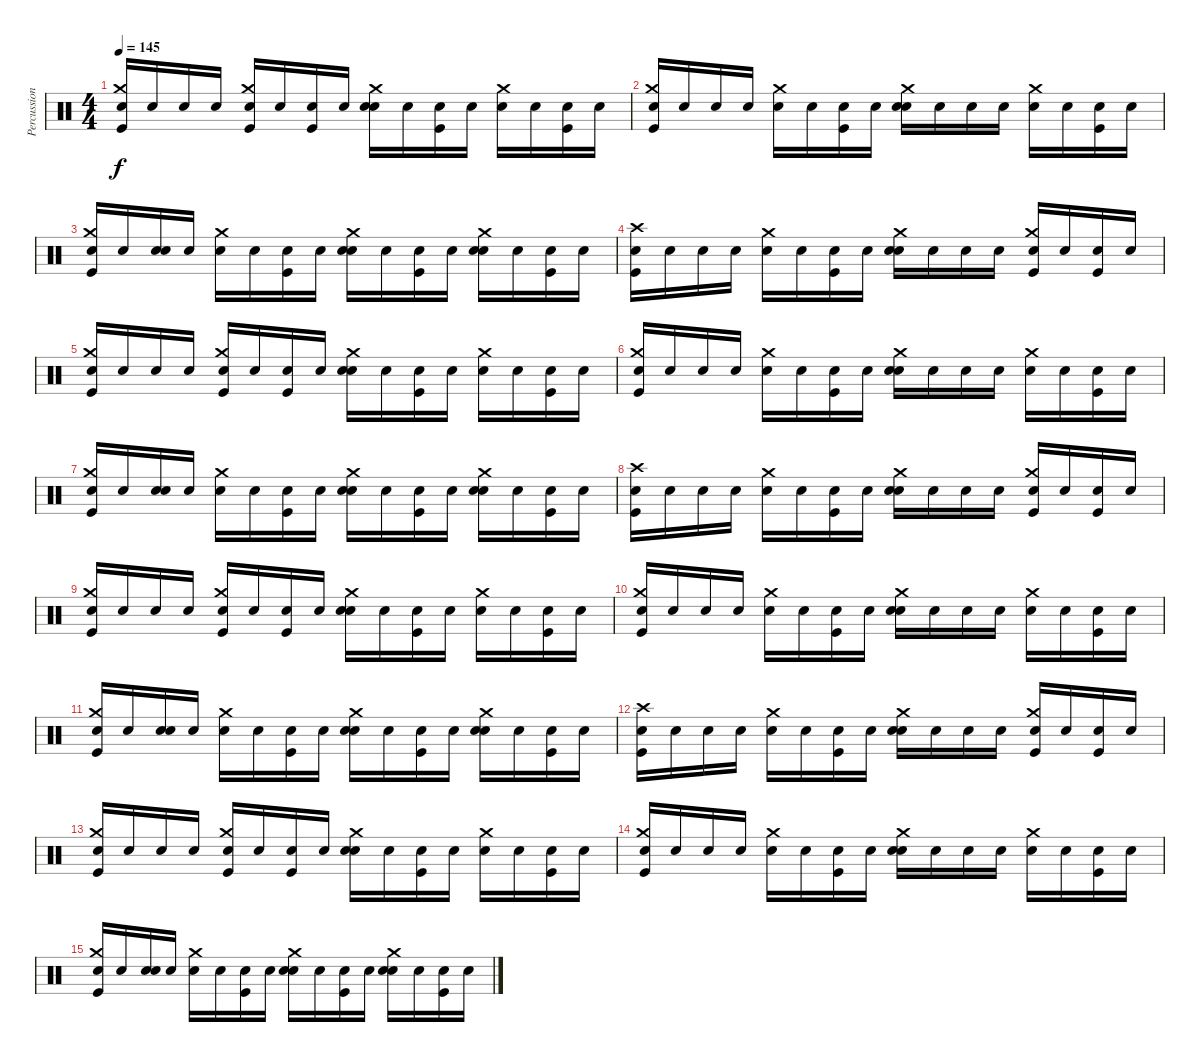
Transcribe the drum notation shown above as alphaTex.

\track ("Percussion" "Percussion") {instrument percussion}
\staff {score}
\articulation defaults
\ts (4 4)
\tempo 145
\clef neutral
\ks c
("Snare (hit)" "Crash medium (hit)" "Kick (hit)").16{dy f} "Snare (hit)".16 "Snare (hit)".16 "Snare (hit)".16 ("Snare (hit)" "Crash medium (hit)" "Kick (hit)").16 "Snare (hit)".16 ("Snare (hit)" "Kick (hit)").16 "Snare (hit)".16 ("Snare (hit)" "Crash medium (hit)" "Snare (hit) 2").16 "Snare (hit)".16 ("Snare (hit)" "Kick (hit)").16 "Snare (hit)".16 ("Snare (hit)" "Crash medium (hit)").16 "Snare (hit)".16 ("Snare (hit)" "Kick (hit)").16 "Snare (hit)".16 |
("Snare (hit)" "Crash medium (hit)" "Kick (hit)").16 "Snare (hit)".16 "Snare (hit)".16 "Snare (hit)".16 ("Snare (hit)" "Crash medium (hit)").16 "Snare (hit)".16 ("Snare (hit)" "Kick (hit)").16 "Snare (hit)".16 ("Snare (hit)" "Crash medium (hit)" "Snare (hit) 2").16 "Snare (hit)".16 "Snare (hit)".16 "Snare (hit)".16 ("Snare (hit)" "Crash medium (hit)").16 "Snare (hit)".16 ("Snare (hit)" "Kick (hit)").16 "Snare (hit)".16 |
("Snare (hit)" "Crash medium (hit)" "Kick (hit)").16 "Snare (hit)".16 ("Snare (hit)" "Snare (hit) 2").16 "Snare (hit)".16 ("Snare (hit)" "Crash medium (hit)").16 "Snare (hit)".16 ("Snare (hit)" "Kick (hit)").16 "Snare (hit)".16 ("Snare (hit)" "Snare (hit) 2" "Crash medium (hit)").16 "Snare (hit)".16 ("Snare (hit)" "Kick (hit)").16 "Snare (hit)".16 ("Snare (hit)" "Snare (hit) 2" "Crash medium (hit)").16 "Snare (hit)".16 ("Snare (hit)" "Kick (hit)").16 "Snare (hit)".16 |
("Snare (hit)" "Crash high (hit)" "Kick (hit)").16 "Snare (hit)".16 "Snare (hit)".16 "Snare (hit)".16 ("Snare (hit)" "Crash medium (hit)").16 "Snare (hit)".16 ("Snare (hit)" "Kick (hit)").16 "Snare (hit)".16 ("Snare (hit)" "Crash medium (hit)" "Snare (hit) 2").16 "Snare (hit)".16 "Snare (hit)".16 "Snare (hit)".16 ("Snare (hit)" "Crash medium (hit)" "Kick (hit)").16 "Snare (hit)".16 ("Snare (hit)" "Kick (hit)").16 "Snare (hit)".16 |
("Snare (hit)" "Crash medium (hit)" "Kick (hit)").16 "Snare (hit)".16 "Snare (hit)".16 "Snare (hit)".16 ("Snare (hit)" "Crash medium (hit)" "Kick (hit)").16 "Snare (hit)".16 ("Snare (hit)" "Kick (hit)").16 "Snare (hit)".16 ("Snare (hit)" "Crash medium (hit)" "Snare (hit) 2").16 "Snare (hit)".16 ("Snare (hit)" "Kick (hit)").16 "Snare (hit)".16 ("Snare (hit)" "Crash medium (hit)").16 "Snare (hit)".16 ("Snare (hit)" "Kick (hit)").16 "Snare (hit)".16 |
("Snare (hit)" "Crash medium (hit)" "Kick (hit)").16 "Snare (hit)".16 "Snare (hit)".16 "Snare (hit)".16 ("Snare (hit)" "Crash medium (hit)").16 "Snare (hit)".16 ("Snare (hit)" "Kick (hit)").16 "Snare (hit)".16 ("Snare (hit)" "Crash medium (hit)" "Snare (hit) 2").16 "Snare (hit)".16 "Snare (hit)".16 "Snare (hit)".16 ("Snare (hit)" "Crash medium (hit)").16 "Snare (hit)".16 ("Snare (hit)" "Kick (hit)").16 "Snare (hit)".16 |
("Snare (hit)" "Crash medium (hit)" "Kick (hit)").16 "Snare (hit)".16 ("Snare (hit)" "Snare (hit) 2").16 "Snare (hit)".16 ("Snare (hit)" "Crash medium (hit)").16 "Snare (hit)".16 ("Snare (hit)" "Kick (hit)").16 "Snare (hit)".16 ("Snare (hit)" "Snare (hit) 2" "Crash medium (hit)").16 "Snare (hit)".16 ("Snare (hit)" "Kick (hit)").16 "Snare (hit)".16 ("Snare (hit)" "Snare (hit) 2" "Crash medium (hit)").16 "Snare (hit)".16 ("Snare (hit)" "Kick (hit)").16 "Snare (hit)".16 |
("Snare (hit)" "Crash high (hit)" "Kick (hit)").16 "Snare (hit)".16 "Snare (hit)".16 "Snare (hit)".16 ("Snare (hit)" "Crash medium (hit)").16 "Snare (hit)".16 ("Snare (hit)" "Kick (hit)").16 "Snare (hit)".16 ("Snare (hit)" "Crash medium (hit)" "Snare (hit) 2").16 "Snare (hit)".16 "Snare (hit)".16 "Snare (hit)".16 ("Snare (hit)" "Crash medium (hit)" "Kick (hit)").16 "Snare (hit)".16 ("Snare (hit)" "Kick (hit)").16 "Snare (hit)".16 |
("Snare (hit)" "Crash medium (hit)" "Kick (hit)").16 "Snare (hit)".16 "Snare (hit)".16 "Snare (hit)".16 ("Snare (hit)" "Crash medium (hit)" "Kick (hit)").16 "Snare (hit)".16 ("Snare (hit)" "Kick (hit)").16 "Snare (hit)".16 ("Snare (hit)" "Crash medium (hit)" "Snare (hit) 2").16 "Snare (hit)".16 ("Snare (hit)" "Kick (hit)").16 "Snare (hit)".16 ("Snare (hit)" "Crash medium (hit)").16 "Snare (hit)".16 ("Snare (hit)" "Kick (hit)").16 "Snare (hit)".16 |
("Snare (hit)" "Crash medium (hit)" "Kick (hit)").16 "Snare (hit)".16 "Snare (hit)".16 "Snare (hit)".16 ("Snare (hit)" "Crash medium (hit)").16 "Snare (hit)".16 ("Snare (hit)" "Kick (hit)").16 "Snare (hit)".16 ("Snare (hit)" "Crash medium (hit)" "Snare (hit) 2").16 "Snare (hit)".16 "Snare (hit)".16 "Snare (hit)".16 ("Snare (hit)" "Crash medium (hit)").16 "Snare (hit)".16 ("Snare (hit)" "Kick (hit)").16 "Snare (hit)".16 |
("Snare (hit)" "Crash medium (hit)" "Kick (hit)").16 "Snare (hit)".16 ("Snare (hit)" "Snare (hit) 2").16 "Snare (hit)".16 ("Snare (hit)" "Crash medium (hit)").16 "Snare (hit)".16 ("Snare (hit)" "Kick (hit)").16 "Snare (hit)".16 ("Snare (hit)" "Snare (hit) 2" "Crash medium (hit)").16 "Snare (hit)".16 ("Snare (hit)" "Kick (hit)").16 "Snare (hit)".16 ("Snare (hit)" "Snare (hit) 2" "Crash medium (hit)").16 "Snare (hit)".16 ("Snare (hit)" "Kick (hit)").16 "Snare (hit)".16 |
("Snare (hit)" "Crash high (hit)" "Kick (hit)").16 "Snare (hit)".16 "Snare (hit)".16 "Snare (hit)".16 ("Snare (hit)" "Crash medium (hit)").16 "Snare (hit)".16 ("Snare (hit)" "Kick (hit)").16 "Snare (hit)".16 ("Snare (hit)" "Crash medium (hit)" "Snare (hit) 2").16 "Snare (hit)".16 "Snare (hit)".16 "Snare (hit)".16 ("Snare (hit)" "Crash medium (hit)" "Kick (hit)").16 "Snare (hit)".16 ("Snare (hit)" "Kick (hit)").16 "Snare (hit)".16 |
("Snare (hit)" "Crash medium (hit)" "Kick (hit)").16 "Snare (hit)".16 "Snare (hit)".16 "Snare (hit)".16 ("Snare (hit)" "Crash medium (hit)" "Kick (hit)").16 "Snare (hit)".16 ("Snare (hit)" "Kick (hit)").16 "Snare (hit)".16 ("Snare (hit)" "Crash medium (hit)" "Snare (hit) 2").16 "Snare (hit)".16 ("Snare (hit)" "Kick (hit)").16 "Snare (hit)".16 ("Snare (hit)" "Crash medium (hit)").16 "Snare (hit)".16 ("Snare (hit)" "Kick (hit)").16 "Snare (hit)".16 |
("Snare (hit)" "Crash medium (hit)" "Kick (hit)").16 "Snare (hit)".16 "Snare (hit)".16 "Snare (hit)".16 ("Snare (hit)" "Crash medium (hit)").16 "Snare (hit)".16 ("Snare (hit)" "Kick (hit)").16 "Snare (hit)".16 ("Snare (hit)" "Crash medium (hit)" "Snare (hit) 2").16 "Snare (hit)".16 "Snare (hit)".16 "Snare (hit)".16 ("Snare (hit)" "Crash medium (hit)").16 "Snare (hit)".16 ("Snare (hit)" "Kick (hit)").16 "Snare (hit)".16 |
("Snare (hit)" "Crash medium (hit)" "Kick (hit)").16 "Snare (hit)".16 ("Snare (hit)" "Snare (hit) 2").16 "Snare (hit)".16 ("Snare (hit)" "Crash medium (hit)").16 "Snare (hit)".16 ("Snare (hit)" "Kick (hit)").16 "Snare (hit)".16 ("Snare (hit)" "Snare (hit) 2" "Crash medium (hit)").16 "Snare (hit)".16 ("Snare (hit)" "Kick (hit)").16 "Snare (hit)".16 ("Snare (hit)" "Snare (hit) 2" "Crash medium (hit)").16 "Snare (hit)".16 ("Snare (hit)" "Kick (hit)").16 "Snare (hit)".16
